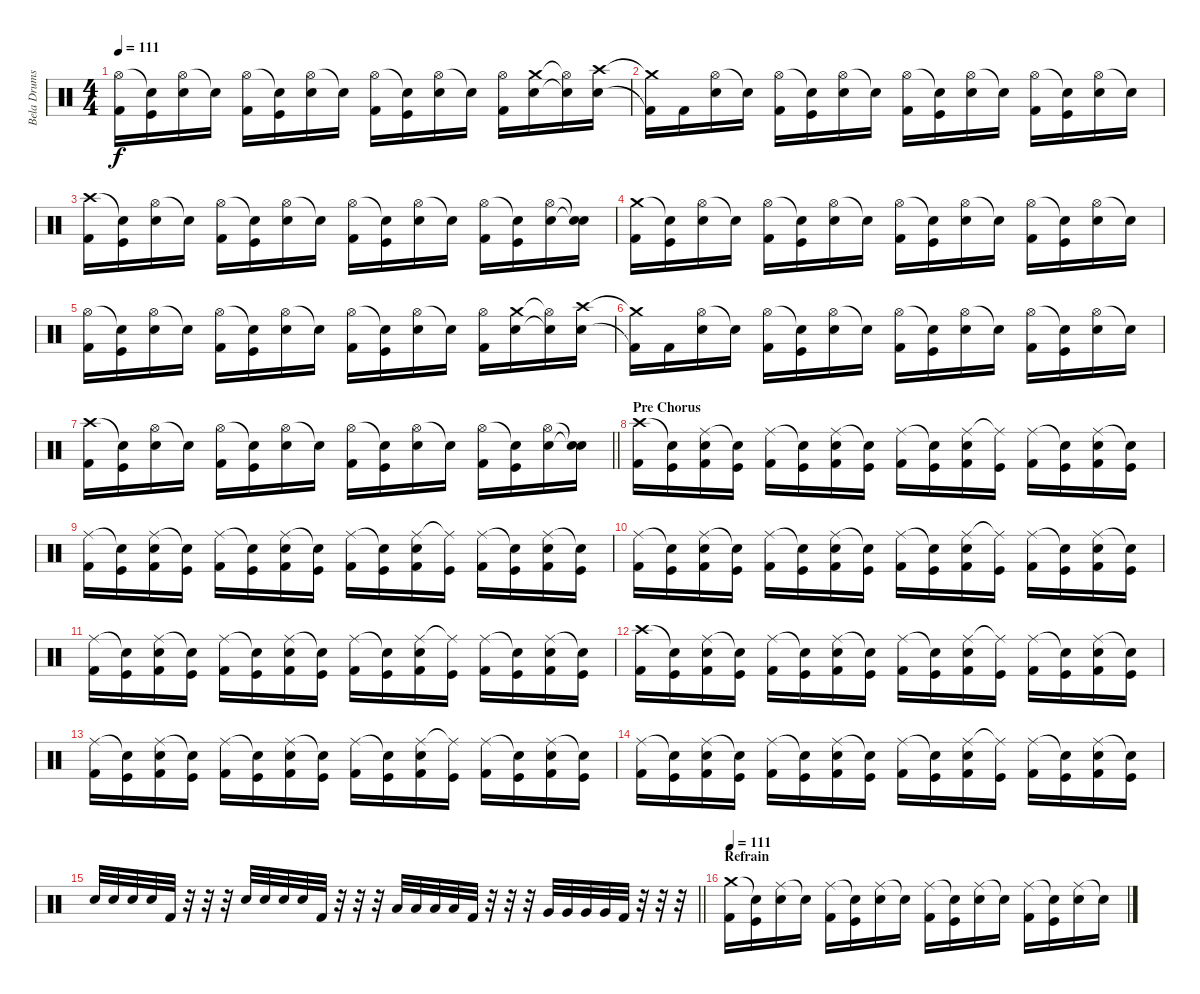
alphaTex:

\track ("Bela Drums" "Bela Drums") {instrument percussion}
\staff {score}
\articulation defaults
\ts (4 4)
\tempo 111
\clef neutral
\ks c
("Hi-Hat (open)" "Kick (hit) 2").16{dy f} ("Snare (hit)"{t} "Kick (hit)").16 ("Hi-Hat (open)" "Snare (hit) 2").16 "Snare (hit)"{t}.16 ("Hi-Hat (open)" "Kick (hit) 2").16 ("Snare (hit)"{t} "Kick (hit)").16 ("Hi-Hat (open)" "Snare (hit) 2").16 "Snare (hit)"{t}.16 ("Hi-Hat (open)" "Kick (hit) 2").16 ("Snare (hit)"{t} "Kick (hit)").16 ("Hi-Hat (open)" "Snare (hit) 2").16 "Snare (hit)"{t}.16 ("Hi-Hat (open)" "Kick (hit) 2").16 ("Crash medium (hit)" "Snare (hit) 2").16 ("Hi-Hat (open)"{t} "Snare (hit) 2"{t}).16 ("Crash high (hit)" "Snare (hit) 2").16 |
("Crash medium (hit)"{t} "Kick (hit) 2"{t}).16 "Kick (hit) 2".16 ("Hi-Hat (open)" "Snare (hit) 2").16 "Snare (hit)"{t}.16 ("Hi-Hat (open)" "Kick (hit) 2").16 ("Snare (hit)"{t} "Kick (hit)").16 ("Hi-Hat (open)" "Snare (hit) 2").16 "Snare (hit)"{t}.16 ("Hi-Hat (open)" "Kick (hit) 2").16 ("Snare (hit)"{t} "Kick (hit)").16 ("Hi-Hat (open)" "Snare (hit) 2").16 "Snare (hit)"{t}.16 ("Hi-Hat (open)" "Kick (hit) 2").16 ("Snare (hit)"{t} "Kick (hit)").16 ("Hi-Hat (open)" "Snare (hit) 2").16 "Snare (hit)"{t}.16 |
("Crash high (hit)" "Kick (hit) 2").16 ("Snare (hit)"{t} "Kick (hit)").16 ("Hi-Hat (open)" "Snare (hit) 2").16 "Snare (hit)"{t}.16 ("Hi-Hat (open)" "Kick (hit) 2").16 ("Snare (hit)"{t} "Kick (hit)").16 ("Hi-Hat (open)" "Snare (hit) 2").16 "Snare (hit)"{t}.16 ("Hi-Hat (open)" "Kick (hit) 2").16 ("Snare (hit)"{t} "Kick (hit)").16 ("Hi-Hat (open)" "Snare (hit) 2").16 "Snare (hit)"{t}.16 ("Hi-Hat (open)" "Kick (hit) 2").16 ("Snare (hit)"{t} "Kick (hit)").16 ("Hi-Hat (open)" "Snare (hit) 2").16 ("Snare (hit)"{t} "Snare (hit)"{t}).16 |
("Crash medium (hit)" "Kick (hit) 2").16 ("Snare (hit)"{t} "Kick (hit)").16 ("Hi-Hat (open)" "Snare (hit) 2").16 "Snare (hit)"{t}.16 ("Hi-Hat (open)" "Kick (hit) 2").16 ("Snare (hit)"{t} "Kick (hit)").16 ("Hi-Hat (open)" "Snare (hit) 2").16 "Snare (hit)"{t}.16 ("Hi-Hat (open)" "Kick (hit) 2").16 ("Snare (hit)"{t} "Kick (hit)").16 ("Hi-Hat (open)" "Snare (hit) 2").16 "Snare (hit)"{t}.16 ("Hi-Hat (open)" "Kick (hit) 2").16 ("Snare (hit)"{t} "Kick (hit)").16 ("Hi-Hat (open)" "Snare (hit) 2").16 "Snare (hit)"{t}.16 |
("Hi-Hat (open)" "Kick (hit) 2").16 ("Snare (hit)"{t} "Kick (hit)").16 ("Hi-Hat (open)" "Snare (hit) 2").16 "Snare (hit)"{t}.16 ("Hi-Hat (open)" "Kick (hit) 2").16 ("Snare (hit)"{t} "Kick (hit)").16 ("Hi-Hat (open)" "Snare (hit) 2").16 "Snare (hit)"{t}.16 ("Hi-Hat (open)" "Kick (hit) 2").16 ("Snare (hit)"{t} "Kick (hit)").16 ("Hi-Hat (open)" "Snare (hit) 2").16 "Snare (hit)"{t}.16 ("Hi-Hat (open)" "Kick (hit) 2").16 ("Crash medium (hit)" "Snare (hit) 2").16 ("Hi-Hat (open)"{t} "Snare (hit) 2"{t}).16 ("Crash high (hit)" "Snare (hit) 2").16 |
("Crash medium (hit)"{t} "Kick (hit) 2"{t}).16 "Kick (hit) 2".16 ("Hi-Hat (open)" "Snare (hit) 2").16 "Snare (hit)"{t}.16 ("Hi-Hat (open)" "Kick (hit) 2").16 ("Snare (hit)"{t} "Kick (hit)").16 ("Hi-Hat (open)" "Snare (hit) 2").16 "Snare (hit)"{t}.16 ("Hi-Hat (open)" "Kick (hit) 2").16 ("Snare (hit)"{t} "Kick (hit)").16 ("Hi-Hat (open)" "Snare (hit) 2").16 "Snare (hit)"{t}.16 ("Hi-Hat (open)" "Kick (hit) 2").16 ("Snare (hit)"{t} "Kick (hit)").16 ("Hi-Hat (open)" "Snare (hit) 2").16 "Snare (hit)"{t}.16 |
\barLineRight lightlight
("Crash high (hit)" "Kick (hit) 2").16 ("Snare (hit)"{t} "Kick (hit)").16 ("Hi-Hat (open)" "Snare (hit) 2").16 "Snare (hit)"{t}.16 ("Hi-Hat (open)" "Kick (hit) 2").16 ("Snare (hit)"{t} "Kick (hit)").16 ("Hi-Hat (open)" "Snare (hit) 2").16 "Snare (hit)"{t}.16 ("Hi-Hat (open)" "Kick (hit) 2").16 ("Snare (hit)"{t} "Kick (hit)").16 ("Hi-Hat (open)" "Snare (hit) 2").16 "Snare (hit)"{t}.16 ("Hi-Hat (open)" "Kick (hit) 2").16 ("Snare (hit)"{t} "Kick (hit)").16 ("Hi-Hat (open)" "Snare (hit) 2").16 ("Snare (hit)"{t} "Snare (hit)"{t}).16 |
\section ("" "Pre Chorus")
("Crash high (hit)" "Kick (hit) 2").16 ("Snare (hit)"{t} "Kick (hit)").16 ("Ride (middle)" "Kick (hit) 2" "Snare (hit) 2").16 ("Snare (hit)"{t} "Kick (hit)").16 ("Ride (middle)" "Kick (hit) 2").16 ("Snare (hit)"{t} "Kick (hit)").16 ("Ride (middle)" "Kick (hit) 2" "Snare (hit) 2").16 ("Snare (hit)"{t} "Kick (hit)").16 ("Ride (middle)" "Kick (hit) 2").16 ("Snare (hit)"{t} "Kick (hit)").16 ("Ride (middle)" "Kick (hit) 2" "Snare (hit) 2").16 ("Ride (middle)"{t} "Kick (hit)").16 ("Ride (middle)" "Kick (hit) 2").16 ("Snare (hit)"{t} "Kick (hit)").16 ("Ride (middle)" "Kick (hit) 2" "Snare (hit) 2").16 ("Snare (hit)"{t} "Kick (hit)").16 |
("Ride (middle)" "Kick (hit) 2").16 ("Snare (hit)"{t} "Kick (hit)").16 ("Ride (middle)" "Kick (hit) 2" "Snare (hit) 2").16 ("Snare (hit)"{t} "Kick (hit)").16 ("Ride (middle)" "Kick (hit) 2").16 ("Snare (hit)"{t} "Kick (hit)").16 ("Ride (middle)" "Kick (hit) 2" "Snare (hit) 2").16 ("Snare (hit)"{t} "Kick (hit)").16 ("Ride (middle)" "Kick (hit) 2").16 ("Snare (hit)"{t} "Kick (hit)").16 ("Ride (middle)" "Kick (hit) 2" "Snare (hit) 2").16 ("Ride (middle)"{t} "Kick (hit)").16 ("Ride (middle)" "Kick (hit) 2").16 ("Snare (hit)"{t} "Kick (hit)").16 ("Ride (middle)" "Kick (hit) 2" "Snare (hit) 2").16 ("Snare (hit)"{t} "Kick (hit)").16 |
("Ride (middle)" "Kick (hit) 2").16 ("Snare (hit)"{t} "Kick (hit)").16 ("Ride (middle)" "Kick (hit) 2" "Snare (hit) 2").16 ("Snare (hit)"{t} "Kick (hit)").16 ("Ride (middle)" "Kick (hit) 2").16 ("Snare (hit)"{t} "Kick (hit)").16 ("Ride (middle)" "Kick (hit) 2" "Snare (hit) 2").16 ("Snare (hit)"{t} "Kick (hit)").16 ("Ride (middle)" "Kick (hit) 2").16 ("Snare (hit)"{t} "Kick (hit)").16 ("Ride (middle)" "Kick (hit) 2" "Snare (hit) 2").16 ("Ride (middle)"{t} "Kick (hit)").16 ("Ride (middle)" "Kick (hit) 2").16 ("Snare (hit)"{t} "Kick (hit)").16 ("Ride (middle)" "Kick (hit) 2" "Snare (hit) 2").16 ("Snare (hit)"{t} "Kick (hit)").16 |
("Ride (middle)" "Kick (hit) 2").16 ("Snare (hit)"{t} "Kick (hit)").16 ("Ride (middle)" "Kick (hit) 2" "Snare (hit) 2").16 ("Snare (hit)"{t} "Kick (hit)").16 ("Ride (middle)" "Kick (hit) 2").16 ("Snare (hit)"{t} "Kick (hit)").16 ("Ride (middle)" "Kick (hit) 2" "Snare (hit) 2").16 ("Snare (hit)"{t} "Kick (hit)").16 ("Ride (middle)" "Kick (hit) 2").16 ("Snare (hit)"{t} "Kick (hit)").16 ("Ride (middle)" "Kick (hit) 2" "Snare (hit) 2").16 ("Ride (middle)"{t} "Kick (hit)").16 ("Ride (middle)" "Kick (hit) 2").16 ("Snare (hit)"{t} "Kick (hit)").16 ("Ride (middle)" "Kick (hit) 2" "Snare (hit) 2").16 ("Snare (hit)"{t} "Kick (hit)").16 |
("Crash high (hit)" "Kick (hit) 2").16 ("Snare (hit)"{t} "Kick (hit)").16 ("Ride (middle)" "Kick (hit) 2" "Snare (hit) 2").16 ("Snare (hit)"{t} "Kick (hit)").16 ("Ride (middle)" "Kick (hit) 2").16 ("Snare (hit)"{t} "Kick (hit)").16 ("Ride (middle)" "Kick (hit) 2" "Snare (hit) 2").16 ("Snare (hit)"{t} "Kick (hit)").16 ("Ride (middle)" "Kick (hit) 2").16 ("Snare (hit)"{t} "Kick (hit)").16 ("Ride (middle)" "Kick (hit) 2" "Snare (hit) 2").16 ("Ride (middle)"{t} "Kick (hit)").16 ("Ride (middle)" "Kick (hit) 2").16 ("Snare (hit)"{t} "Kick (hit)").16 ("Ride (middle)" "Kick (hit) 2" "Snare (hit) 2").16 ("Snare (hit)"{t} "Kick (hit)").16 |
("Ride (middle)" "Kick (hit) 2").16 ("Snare (hit)"{t} "Kick (hit)").16 ("Ride (middle)" "Kick (hit) 2" "Snare (hit) 2").16 ("Snare (hit)"{t} "Kick (hit)").16 ("Ride (middle)" "Kick (hit) 2").16 ("Snare (hit)"{t} "Kick (hit)").16 ("Ride (middle)" "Kick (hit) 2" "Snare (hit) 2").16 ("Snare (hit)"{t} "Kick (hit)").16 ("Ride (middle)" "Kick (hit) 2").16 ("Snare (hit)"{t} "Kick (hit)").16 ("Ride (middle)" "Kick (hit) 2" "Snare (hit) 2").16 ("Ride (middle)"{t} "Kick (hit)").16 ("Ride (middle)" "Kick (hit) 2").16 ("Snare (hit)"{t} "Kick (hit)").16 ("Ride (middle)" "Kick (hit) 2" "Snare (hit) 2").16 ("Snare (hit)"{t} "Kick (hit)").16 |
("Ride (middle)" "Kick (hit) 2").16 ("Snare (hit)"{t} "Kick (hit)").16 ("Ride (middle)" "Kick (hit) 2" "Snare (hit) 2").16 ("Snare (hit)"{t} "Kick (hit)").16 ("Ride (middle)" "Kick (hit) 2").16 ("Snare (hit)"{t} "Kick (hit)").16 ("Ride (middle)" "Kick (hit) 2" "Snare (hit) 2").16 ("Snare (hit)"{t} "Kick (hit)").16 ("Ride (middle)" "Kick (hit) 2").16 ("Snare (hit)"{t} "Kick (hit)").16 ("Ride (middle)" "Kick (hit) 2" "Snare (hit) 2").16 ("Ride (middle)"{t} "Kick (hit)").16 ("Ride (middle)" "Kick (hit) 2").16 ("Snare (hit)"{t} "Kick (hit)").16 ("Ride (middle)" "Kick (hit) 2" "Snare (hit) 2").16 ("Snare (hit)"{t} "Kick (hit)").16 |
\barLineRight lightlight "Snare (hit) 2".32 "Snare (hit) 2".32 "Snare (hit) 2".32 "Snare (hit) 2".32 "Kick (hit) 2".32
r.32 r.32 r.32 "Snare (hit) 2".32 "Snare (hit) 2".32 "Snare (hit) 2".32 "Snare (hit) 2".32 "Kick (hit) 2".32 r.32 r.32 r.32 "Low Tom (hit)".32 "Low Tom (hit)".32 "Low Tom (hit)".32 "Low Tom (hit)".32 "Kick (hit) 2".32 r.32 r.32 r.32 "Very Low Tom (hit)".32 "Very Low Tom (hit)".32 "Very Low Tom (hit)".32 "Very Low Tom (hit)".32 "Kick (hit) 2".32 r.32 r.32 r.32 |
\section ("" "Refrain")
\tempo 111
("Crash medium (hit)" "Kick (hit) 2").16 ("Snare (hit)"{t} "Kick (hit)").16 ("Ride (middle)" "Snare (hit) 2").16 "Snare (hit)"{t}.16 ("Ride (middle)" "Kick (hit) 2").16 ("Snare (hit)"{t} "Kick (hit)").16 ("Ride (middle)" "Snare (hit) 2").16 "Snare (hit)"{t}.16 ("Ride (middle)" "Kick (hit) 2").16 ("Snare (hit)"{t} "Kick (hit)").16 ("Ride (middle)" "Snare (hit) 2").16 "Snare (hit)"{t}.16 ("Ride (middle)" "Kick (hit) 2").16 ("Snare (hit)"{t} "Kick (hit)").16 ("Ride (middle)" "Snare (hit) 2").16 "Snare (hit)"{t}.16
